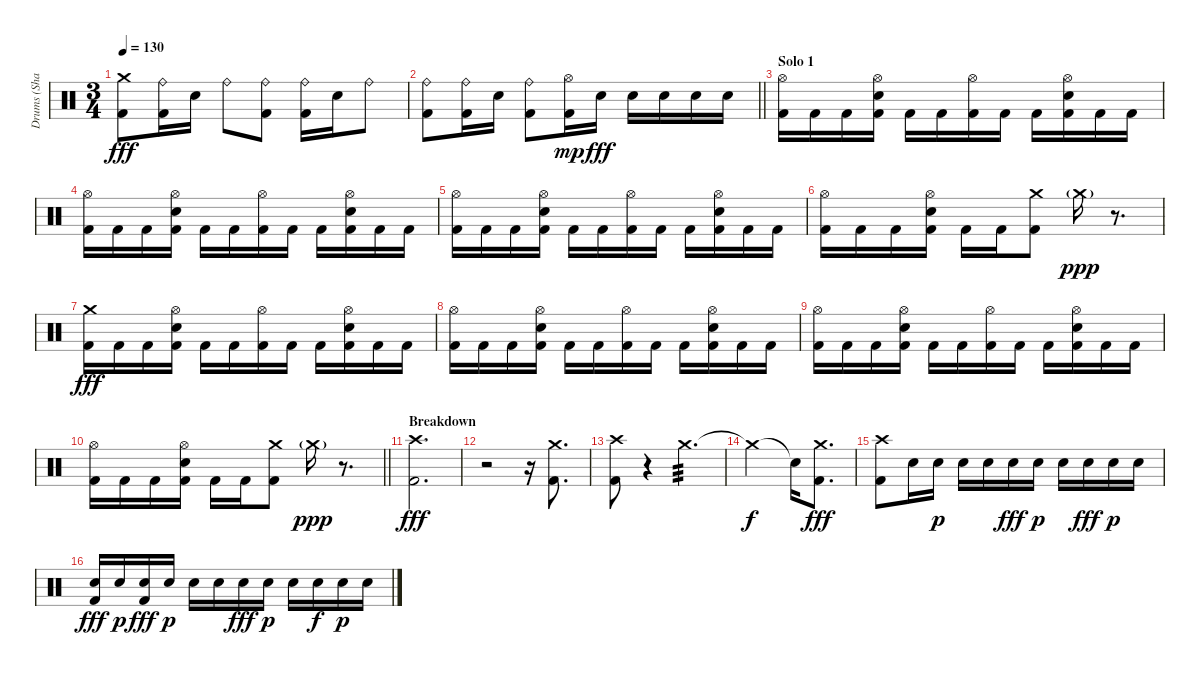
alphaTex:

\track ("Drums (Shawn)" "Drums (Sha") {instrument percussion}
\staff {score}
\articulation defaults
\ts (3 4)
\tempo 130
\clef neutral
\ks c
("Crash medium (hit)" "Kick (hit) 2").8{dy fff} ("Ride (bell)" "Kick (hit) 2").16 "Snare (hit) 2".16 "Ride (bell)".8 ("Ride (bell)" "Kick (hit) 2").8 ("Ride (bell)" "Kick (hit) 2").16 "Snare (hit) 2".16 "Ride (bell)".8 |
\barLineRight lightlight
("Ride (bell)" "Kick (hit) 2").8 ("Ride (bell)" "Kick (hit) 2").16 "Snare (hit) 2".16 ("Ride (bell)" "Kick (hit) 2").8 ("Hi-Hat (open)" "Kick (hit) 2").16{dy mp} "Snare (hit) 2".16{dy fff} "Snare (hit) 2".16 "Snare (hit) 2".16 "Snare (hit) 2".16 "Snare (hit) 2".16 |
\section ("" "Solo 1")
("Hi-Hat (open)" "Kick (hit) 2").16 "Kick (hit) 2".16 "Kick (hit) 2".16 ("Hi-Hat (open)" "Snare (hit) 2" "Kick (hit) 2").16 "Kick (hit) 2".16 "Kick (hit) 2".16 ("Hi-Hat (open)" "Kick (hit) 2").16 "Kick (hit) 2".16 "Kick (hit) 2".16 ("Hi-Hat (open)" "Snare (hit) 2" "Kick (hit) 2").16 "Kick (hit) 2".16 "Kick (hit) 2".16 |
("Hi-Hat (open)" "Kick (hit) 2").16 "Kick (hit) 2".16 "Kick (hit) 2".16 ("Hi-Hat (open)" "Snare (hit) 2" "Kick (hit) 2").16 "Kick (hit) 2".16 "Kick (hit) 2".16 ("Hi-Hat (open)" "Kick (hit) 2").16 "Kick (hit) 2".16 "Kick (hit) 2".16 ("Hi-Hat (open)" "Snare (hit) 2" "Kick (hit) 2").16 "Kick (hit) 2".16 "Kick (hit) 2".16 |
("Hi-Hat (open)" "Kick (hit) 2").16 "Kick (hit) 2".16 "Kick (hit) 2".16 ("Hi-Hat (open)" "Snare (hit) 2" "Kick (hit) 2").16 "Kick (hit) 2".16 "Kick (hit) 2".16 ("Hi-Hat (open)" "Kick (hit) 2").16 "Kick (hit) 2".16 "Kick (hit) 2".16 ("Hi-Hat (open)" "Snare (hit) 2" "Kick (hit) 2").16 "Kick (hit) 2".16 "Kick (hit) 2".16 |
("Hi-Hat (open)" "Kick (hit) 2").16 "Kick (hit) 2".16 "Kick (hit) 2".16 ("Hi-Hat (open)" "Snare (hit) 2" "Kick (hit) 2").16 "Kick (hit) 2".16 "Kick (hit) 2".16 ("Crash medium (hit)" "Kick (hit) 2").8 "Crash medium (hit)"{g}.16{dy ppp} r.8{d} |
("Crash medium (hit)" "Kick (hit) 2").16{dy fff} "Kick (hit) 2".16 "Kick (hit) 2".16 ("Hi-Hat (open)" "Snare (hit) 2" "Kick (hit) 2").16 "Kick (hit) 2".16 "Kick (hit) 2".16 ("Hi-Hat (open)" "Kick (hit) 2").16 "Kick (hit) 2".16 "Kick (hit) 2".16 ("Hi-Hat (open)" "Snare (hit) 2" "Kick (hit) 2").16 "Kick (hit) 2".16 "Kick (hit) 2".16 |
("Hi-Hat (open)" "Kick (hit) 2").16 "Kick (hit) 2".16 "Kick (hit) 2".16 ("Hi-Hat (open)" "Snare (hit) 2" "Kick (hit) 2").16 "Kick (hit) 2".16 "Kick (hit) 2".16 ("Hi-Hat (open)" "Kick (hit) 2").16 "Kick (hit) 2".16 "Kick (hit) 2".16 ("Hi-Hat (open)" "Snare (hit) 2" "Kick (hit) 2").16 "Kick (hit) 2".16 "Kick (hit) 2".16 |
("Hi-Hat (open)" "Kick (hit) 2").16 "Kick (hit) 2".16 "Kick (hit) 2".16 ("Hi-Hat (open)" "Snare (hit) 2" "Kick (hit) 2").16 "Kick (hit) 2".16 "Kick (hit) 2".16 ("Hi-Hat (open)" "Kick (hit) 2").16 "Kick (hit) 2".16 "Kick (hit) 2".16 ("Hi-Hat (open)" "Snare (hit) 2" "Kick (hit) 2").16 "Kick (hit) 2".16 "Kick (hit) 2".16 |
\barLineRight lightlight
("Hi-Hat (open)" "Kick (hit) 2").16 "Kick (hit) 2".16 "Kick (hit) 2".16 ("Hi-Hat (open)" "Snare (hit) 2" "Kick (hit) 2").16 "Kick (hit) 2".16 "Kick (hit) 2".16 ("Crash medium (hit)" "Kick (hit) 2").8 "Crash medium (hit)"{g}.16{dy ppp} r.8{d} |
\section ("" "Breakdown")
("Crash high (hit)" "Kick (hit) 2").2{d dy fff} |
r.2 r.16 ("Crash medium (hit)" "Kick (hit) 2").8{d} |
("Crash high (hit)" "Kick (hit) 2").8 r.4{volume 4} "Crash medium (hit)".4{d tp 3 volume 16} |
"Crash medium (hit)"{t}.2{dy f} "Snare (hit)"{t}.16 ("Crash medium (hit)" "Kick (hit) 2").8{d dy fff} |
("Crash high (hit)" "Kick (hit) 2").8 "Snare (hit) 2".16 "Snare (hit) 2".16{dy p} "Snare (hit) 2".16 "Snare (hit) 2".16 "Snare (hit) 2".16{dy fff} "Snare (hit) 2".16{dy p} "Snare (hit) 2".16 "Snare (hit) 2".16{dy fff} "Snare (hit) 2".16{dy p} "Snare (hit) 2".16 |
("Snare (hit) 2" "Kick (hit) 2").16{dy fff} "Snare (hit) 2".16{dy p} ("Snare (hit) 2" "Kick (hit) 2").16{dy fff} "Snare (hit) 2".16{dy p} "Snare (hit) 2".16 "Snare (hit) 2".16 "Snare (hit) 2".16{dy fff} "Snare (hit) 2".16{dy p} "Snare (hit) 2".16 "Snare (hit) 2".16{dy f} "Snare (hit) 2".16{dy p} "Snare (hit) 2".16
